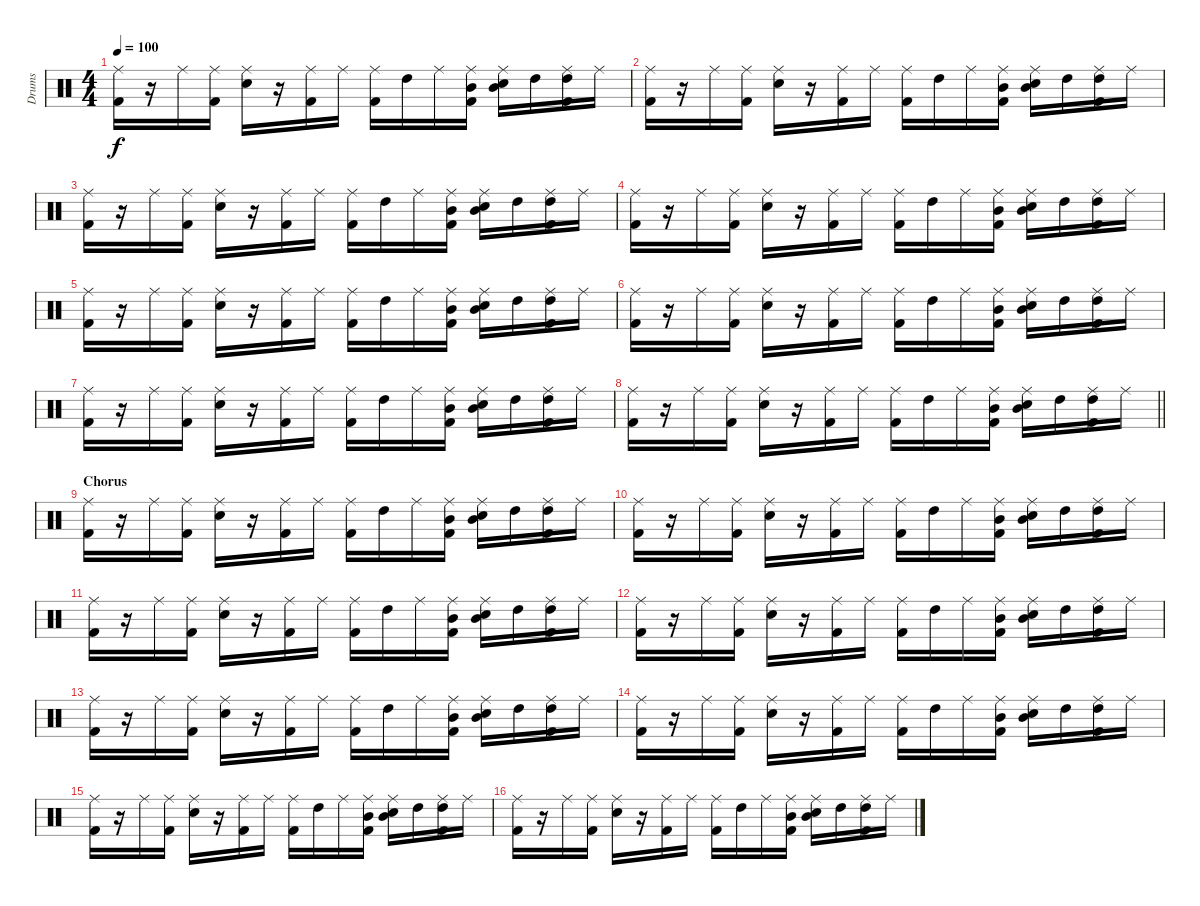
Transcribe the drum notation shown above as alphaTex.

\track ("Drums" "Drums") {instrument percussion}
\staff {score}
\articulation defaults
\ts (4 4)
\tempo 100
\clef neutral
\ks c
("Ride (middle)" "Kick (hit) 2").16{dy f} r.16 "Ride (middle)".16 ("Ride (middle)" "Kick (hit) 2").16 ("Ride (middle)" "Snare (hit) 2").16 r.16 ("Ride (middle)" "Kick (hit) 2").16 "Ride (middle)".16 ("Ride (middle)" "Kick (hit) 2").16 "High Tom (hit)".16 "Ride (middle)".16 ("Ride (middle)" "Mid Tom (hit)" "Kick (hit) 2").16 ("Ride (middle)" "Mid Tom (hit)" "Snare (hit) 2").16 "High Tom (hit)".16 ("Ride (middle)" "High Tom (hit)" "Kick (hit) 2").16 "Ride (middle)".16 |
("Ride (middle)" "Kick (hit) 2").16 r.16 "Ride (middle)".16 ("Ride (middle)" "Kick (hit) 2").16 ("Ride (middle)" "Snare (hit) 2").16 r.16 ("Ride (middle)" "Kick (hit) 2").16 "Ride (middle)".16 ("Ride (middle)" "Kick (hit) 2").16 "High Tom (hit)".16 "Ride (middle)".16 ("Ride (middle)" "Mid Tom (hit)" "Kick (hit) 2").16 ("Ride (middle)" "Mid Tom (hit)" "Snare (hit) 2").16 "High Tom (hit)".16 ("Ride (middle)" "High Tom (hit)" "Kick (hit) 2").16 "Ride (middle)".16 |
("Ride (middle)" "Kick (hit) 2").16 r.16 "Ride (middle)".16 ("Ride (middle)" "Kick (hit) 2").16 ("Ride (middle)" "Snare (hit) 2").16 r.16 ("Ride (middle)" "Kick (hit) 2").16 "Ride (middle)".16 ("Ride (middle)" "Kick (hit) 2").16 "High Tom (hit)".16 "Ride (middle)".16 ("Ride (middle)" "Mid Tom (hit)" "Kick (hit) 2").16 ("Ride (middle)" "Mid Tom (hit)" "Snare (hit) 2").16 "High Tom (hit)".16 ("Ride (middle)" "High Tom (hit)" "Kick (hit) 2").16 "Ride (middle)".16 |
("Ride (middle)" "Kick (hit) 2").16 r.16 "Ride (middle)".16 ("Ride (middle)" "Kick (hit) 2").16 ("Ride (middle)" "Snare (hit) 2").16 r.16 ("Ride (middle)" "Kick (hit) 2").16 "Ride (middle)".16 ("Ride (middle)" "Kick (hit) 2").16 "High Tom (hit)".16 "Ride (middle)".16 ("Ride (middle)" "Mid Tom (hit)" "Kick (hit) 2").16 ("Ride (middle)" "Mid Tom (hit)" "Snare (hit) 2").16 "High Tom (hit)".16 ("Ride (middle)" "High Tom (hit)" "Kick (hit) 2").16 "Ride (middle)".16 |
("Ride (middle)" "Kick (hit) 2").16 r.16 "Ride (middle)".16 ("Ride (middle)" "Kick (hit) 2").16 ("Ride (middle)" "Snare (hit) 2").16 r.16 ("Ride (middle)" "Kick (hit) 2").16 "Ride (middle)".16 ("Ride (middle)" "Kick (hit) 2").16 "High Tom (hit)".16 "Ride (middle)".16 ("Ride (middle)" "Mid Tom (hit)" "Kick (hit) 2").16 ("Ride (middle)" "Mid Tom (hit)" "Snare (hit) 2").16 "High Tom (hit)".16 ("Ride (middle)" "High Tom (hit)" "Kick (hit) 2").16 "Ride (middle)".16 |
("Ride (middle)" "Kick (hit) 2").16 r.16 "Ride (middle)".16 ("Ride (middle)" "Kick (hit) 2").16 ("Ride (middle)" "Snare (hit) 2").16 r.16 ("Ride (middle)" "Kick (hit) 2").16 "Ride (middle)".16 ("Ride (middle)" "Kick (hit) 2").16 "High Tom (hit)".16 "Ride (middle)".16 ("Ride (middle)" "Mid Tom (hit)" "Kick (hit) 2").16 ("Ride (middle)" "Mid Tom (hit)" "Snare (hit) 2").16 "High Tom (hit)".16 ("Ride (middle)" "High Tom (hit)" "Kick (hit) 2").16 "Ride (middle)".16 |
("Ride (middle)" "Kick (hit) 2").16 r.16 "Ride (middle)".16 ("Ride (middle)" "Kick (hit) 2").16 ("Ride (middle)" "Snare (hit) 2").16 r.16 ("Ride (middle)" "Kick (hit) 2").16 "Ride (middle)".16 ("Ride (middle)" "Kick (hit) 2").16 "High Tom (hit)".16 "Ride (middle)".16 ("Ride (middle)" "Mid Tom (hit)" "Kick (hit) 2").16 ("Ride (middle)" "Mid Tom (hit)" "Snare (hit) 2").16 "High Tom (hit)".16 ("Ride (middle)" "High Tom (hit)" "Kick (hit) 2").16 "Ride (middle)".16 |
\barLineRight lightlight
("Ride (middle)" "Kick (hit) 2").16 r.16 "Ride (middle)".16 ("Ride (middle)" "Kick (hit) 2").16 ("Ride (middle)" "Snare (hit) 2").16 r.16 ("Ride (middle)" "Kick (hit) 2").16 "Ride (middle)".16 ("Ride (middle)" "Kick (hit) 2").16 "High Tom (hit)".16 "Ride (middle)".16 ("Ride (middle)" "Mid Tom (hit)" "Kick (hit) 2").16 ("Ride (middle)" "Mid Tom (hit)" "Snare (hit) 2").16 "High Tom (hit)".16 ("Ride (middle)" "High Tom (hit)" "Kick (hit) 2").16 "Ride (middle)".16 |
\section ("" "Chorus")
("Ride (middle)" "Kick (hit) 2").16 r.16 "Ride (middle)".16 ("Ride (middle)" "Kick (hit) 2").16 ("Ride (middle)" "Snare (hit) 2").16 r.16 ("Ride (middle)" "Kick (hit) 2").16 "Ride (middle)".16 ("Ride (middle)" "Kick (hit) 2").16 "High Tom (hit)".16 "Ride (middle)".16 ("Ride (middle)" "Mid Tom (hit)" "Kick (hit) 2").16 ("Ride (middle)" "Mid Tom (hit)" "Snare (hit) 2").16 "High Tom (hit)".16 ("Ride (middle)" "High Tom (hit)" "Kick (hit) 2").16 "Ride (middle)".16 |
("Ride (middle)" "Kick (hit) 2").16 r.16 "Ride (middle)".16 ("Ride (middle)" "Kick (hit) 2").16 ("Ride (middle)" "Snare (hit) 2").16 r.16 ("Ride (middle)" "Kick (hit) 2").16 "Ride (middle)".16 ("Ride (middle)" "Kick (hit) 2").16 "High Tom (hit)".16 "Ride (middle)".16 ("Ride (middle)" "Mid Tom (hit)" "Kick (hit) 2").16 ("Ride (middle)" "Mid Tom (hit)" "Snare (hit) 2").16 "High Tom (hit)".16 ("Ride (middle)" "High Tom (hit)" "Kick (hit) 2").16 "Ride (middle)".16 |
("Ride (middle)" "Kick (hit) 2").16 r.16 "Ride (middle)".16 ("Ride (middle)" "Kick (hit) 2").16 ("Ride (middle)" "Snare (hit) 2").16 r.16 ("Ride (middle)" "Kick (hit) 2").16 "Ride (middle)".16 ("Ride (middle)" "Kick (hit) 2").16 "High Tom (hit)".16 "Ride (middle)".16 ("Ride (middle)" "Mid Tom (hit)" "Kick (hit) 2").16 ("Ride (middle)" "Mid Tom (hit)" "Snare (hit) 2").16 "High Tom (hit)".16 ("Ride (middle)" "High Tom (hit)" "Kick (hit) 2").16 "Ride (middle)".16 |
("Ride (middle)" "Kick (hit) 2").16 r.16 "Ride (middle)".16 ("Ride (middle)" "Kick (hit) 2").16 ("Ride (middle)" "Snare (hit) 2").16 r.16 ("Ride (middle)" "Kick (hit) 2").16 "Ride (middle)".16 ("Ride (middle)" "Kick (hit) 2").16 "High Tom (hit)".16 "Ride (middle)".16 ("Ride (middle)" "Mid Tom (hit)" "Kick (hit) 2").16 ("Ride (middle)" "Mid Tom (hit)" "Snare (hit) 2").16 "High Tom (hit)".16 ("Ride (middle)" "High Tom (hit)" "Kick (hit) 2").16 "Ride (middle)".16 |
("Ride (middle)" "Kick (hit) 2").16 r.16 "Ride (middle)".16 ("Ride (middle)" "Kick (hit) 2").16 ("Ride (middle)" "Snare (hit) 2").16 r.16 ("Ride (middle)" "Kick (hit) 2").16 "Ride (middle)".16 ("Ride (middle)" "Kick (hit) 2").16 "High Tom (hit)".16 "Ride (middle)".16 ("Ride (middle)" "Mid Tom (hit)" "Kick (hit) 2").16 ("Ride (middle)" "Mid Tom (hit)" "Snare (hit) 2").16 "High Tom (hit)".16 ("Ride (middle)" "High Tom (hit)" "Kick (hit) 2").16 "Ride (middle)".16 |
("Ride (middle)" "Kick (hit) 2").16 r.16 "Ride (middle)".16 ("Ride (middle)" "Kick (hit) 2").16 ("Ride (middle)" "Snare (hit) 2").16 r.16 ("Ride (middle)" "Kick (hit) 2").16 "Ride (middle)".16 ("Ride (middle)" "Kick (hit) 2").16 "High Tom (hit)".16 "Ride (middle)".16 ("Ride (middle)" "Mid Tom (hit)" "Kick (hit) 2").16 ("Ride (middle)" "Mid Tom (hit)" "Snare (hit) 2").16 "High Tom (hit)".16 ("Ride (middle)" "High Tom (hit)" "Kick (hit) 2").16 "Ride (middle)".16 |
("Ride (middle)" "Kick (hit) 2").16 r.16 "Ride (middle)".16 ("Ride (middle)" "Kick (hit) 2").16 ("Ride (middle)" "Snare (hit) 2").16 r.16 ("Ride (middle)" "Kick (hit) 2").16 "Ride (middle)".16 ("Ride (middle)" "Kick (hit) 2").16 "High Tom (hit)".16 "Ride (middle)".16 ("Ride (middle)" "Mid Tom (hit)" "Kick (hit) 2").16 ("Ride (middle)" "Mid Tom (hit)" "Snare (hit) 2").16 "High Tom (hit)".16 ("Ride (middle)" "High Tom (hit)" "Kick (hit) 2").16 "Ride (middle)".16 |
("Ride (middle)" "Kick (hit) 2").16 r.16 "Ride (middle)".16 ("Ride (middle)" "Kick (hit) 2").16 ("Ride (middle)" "Snare (hit) 2").16 r.16 ("Ride (middle)" "Kick (hit) 2").16 "Ride (middle)".16 ("Ride (middle)" "Kick (hit) 2").16 "High Tom (hit)".16 "Ride (middle)".16 ("Ride (middle)" "Mid Tom (hit)" "Kick (hit) 2").16 ("Ride (middle)" "Mid Tom (hit)" "Snare (hit) 2").16 "High Tom (hit)".16 ("Ride (middle)" "High Tom (hit)" "Kick (hit) 2").16 "Ride (middle)".16
